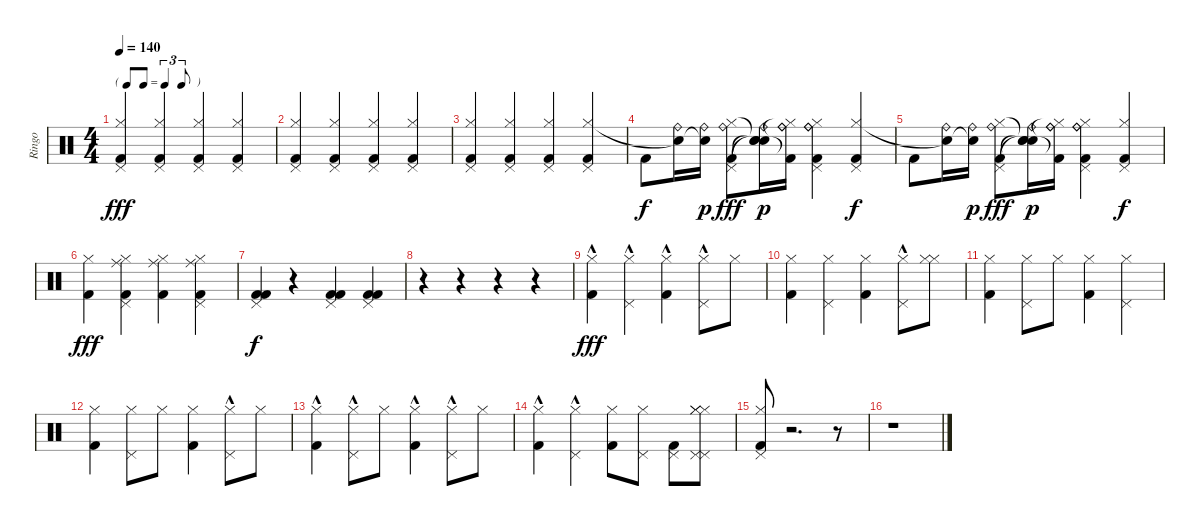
\track ("Ringo" "Ringo") {instrument percussion}
\staff {score}
\articulation defaults
\ts (4 4)
\tf triplet8th
\tempo 140
\clef neutral
\ks c
("Kick (hit) 2" "Hi-Hat (closed)" "Pedal Hi-Hat (hit)").4{dy fff} ("Kick (hit) 2" "Hi-Hat (closed)" "Pedal Hi-Hat (hit)").4 ("Kick (hit) 2" "Hi-Hat (closed)" "Pedal Hi-Hat (hit)").4 ("Kick (hit) 2" "Hi-Hat (closed)" "Pedal Hi-Hat (hit)").4 |
("Kick (hit) 2" "Hi-Hat (closed)" "Pedal Hi-Hat (hit)").4 ("Kick (hit) 2" "Hi-Hat (closed)" "Pedal Hi-Hat (hit)").4 ("Kick (hit) 2" "Hi-Hat (closed)" "Pedal Hi-Hat (hit)").4 ("Kick (hit) 2" "Hi-Hat (closed)" "Pedal Hi-Hat (hit)").4 |
("Kick (hit) 2" "Hi-Hat (closed)" "Pedal Hi-Hat (hit)").4 ("Kick (hit) 2" "Hi-Hat (closed)" "Pedal Hi-Hat (hit)").4 ("Kick (hit) 2" "Hi-Hat (closed)" "Pedal Hi-Hat (hit)").4 ("Kick (hit) 2" "Hi-Hat (closed)" "Pedal Hi-Hat (hit)").4 |
"Kick (hit) 2".8{dy f} ("Ride (bell)" "Snare (hit)"{t}).16 ("Ride (bell)" "Snare (hit)"{t}).16{dy p} ("Ride (bell)" "Pedal Hi-Hat (hit)" "Hi-Hat (closed)" "Kick (hit) 2").8{dy fff} ("Ride (bell)" "Snare (hit)"{t} "Snare (hit)"{t} "Snare (hit)"{t}).16{dy p} ("Ride (bell)" "Ride (bell)" "Kick (hit) 2"{t} "Hi-Hat (closed)"{t}).16 ("Ride (bell)" "Pedal Hi-Hat (hit)" "Hi-Hat (closed)" "Kick (hit) 2" "Ride (bell)").4 ("Pedal Hi-Hat (hit)" "Hi-Hat (closed)" "Kick (hit) 2").4{dy f} |
"Kick (hit) 2".8 ("Ride (bell)" "Snare (hit)"{t}).16 ("Ride (bell)" "Snare (hit)"{t}).16{dy p} ("Ride (bell)" "Pedal Hi-Hat (hit)" "Hi-Hat (closed)" "Kick (hit) 2").8{dy fff} ("Ride (bell)" "Snare (hit)"{t} "Snare (hit)"{t} "Snare (hit)"{t}).16{dy p} ("Ride (bell)" "Ride (bell)" "Kick (hit) 2"{t} "Hi-Hat (closed)"{t}).16 ("Ride (bell)" "Pedal Hi-Hat (hit)" "Hi-Hat (closed)" "Kick (hit) 2" "Ride (bell)").4 ("Pedal Hi-Hat (hit)" "Hi-Hat (closed)" "Kick (hit) 2").4{dy f} |
("Hi-Hat (closed)" "Kick (hit) 2").4{dy fff} ("Ride (middle)" "Hi-Hat (closed)" "Pedal Hi-Hat (hit)" "Kick (hit) 2").4 ("Ride (middle)" "Hi-Hat (closed)" "Kick (hit) 2").4 ("Ride (middle)" "Hi-Hat (closed)" "Pedal Hi-Hat (hit)" "Kick (hit) 2").4 |
("Pedal Hi-Hat (hit)" "Kick (hit) 2" "Kick (hit) 2").4{dy f} r.4 ("Pedal Hi-Hat (hit)" "Kick (hit) 2" "Kick (hit) 2").4 ("Pedal Hi-Hat (hit)" "Kick (hit) 2" "Kick (hit) 2").4 |
r.4 r.4 r.4 r.4 |
("Kick (hit) 2"{hac} "Hi-Hat (closed)").4{dy fff} ("Hi-Hat (closed)" "Pedal Hi-Hat (hit)"{hac}).4 ("Kick (hit) 2"{hac} "Hi-Hat (closed)").4 ("Hi-Hat (closed)" "Pedal Hi-Hat (hit)"{hac}).8 "Hi-Hat (closed)".8 |
("Kick (hit) 2" "Hi-Hat (closed)").4 ("Hi-Hat (closed)" "Pedal Hi-Hat (hit)").4 ("Kick (hit) 2" "Hi-Hat (closed)").4 ("Hi-Hat (closed)" "Pedal Hi-Hat (hit)"{hac}).8 ("Hi-Hat (closed)" "Hi-Hat (closed)").8 |
("Kick (hit) 2" "Hi-Hat (closed)").4 ("Hi-Hat (closed)" "Pedal Hi-Hat (hit)").8 "Hi-Hat (closed)".8 ("Kick (hit) 2" "Hi-Hat (closed)").4 ("Hi-Hat (closed)" "Pedal Hi-Hat (hit)").4 |
("Kick (hit) 2" "Hi-Hat (closed)").4 ("Hi-Hat (closed)" "Pedal Hi-Hat (hit)").8 "Hi-Hat (closed)".8 ("Kick (hit) 2" "Hi-Hat (closed)").4 ("Hi-Hat (closed)" "Pedal Hi-Hat (hit)"{hac}).8 "Hi-Hat (closed)".8 |
("Kick (hit) 2"{hac} "Hi-Hat (closed)").4 ("Hi-Hat (closed)" "Pedal Hi-Hat (hit)"{hac}).8 "Hi-Hat (closed)".8 ("Kick (hit) 2"{hac} "Hi-Hat (closed)").4 ("Hi-Hat (closed)" "Pedal Hi-Hat (hit)"{hac}).8 "Hi-Hat (closed)".8 |
("Kick (hit) 2"{hac} "Hi-Hat (closed)").4 ("Hi-Hat (closed)" "Pedal Hi-Hat (hit)"{hac}).4 ("Kick (hit) 2" "Hi-Hat (closed)").8 ("Hi-Hat (closed)" "Pedal Hi-Hat (hit)").8 ("Kick (hit) 2" "Pedal Hi-Hat (hit)").8 ("Hi-Hat (closed)" "Pedal Hi-Hat (hit)" "Hi-Hat (closed)" "Hi-Hat (closed)" "Pedal Hi-Hat (hit)").8 |
("Kick (hit) 2" "Hi-Hat (closed)" "Pedal Hi-Hat (hit)").8 r.2{d} r.8 |
r.1
